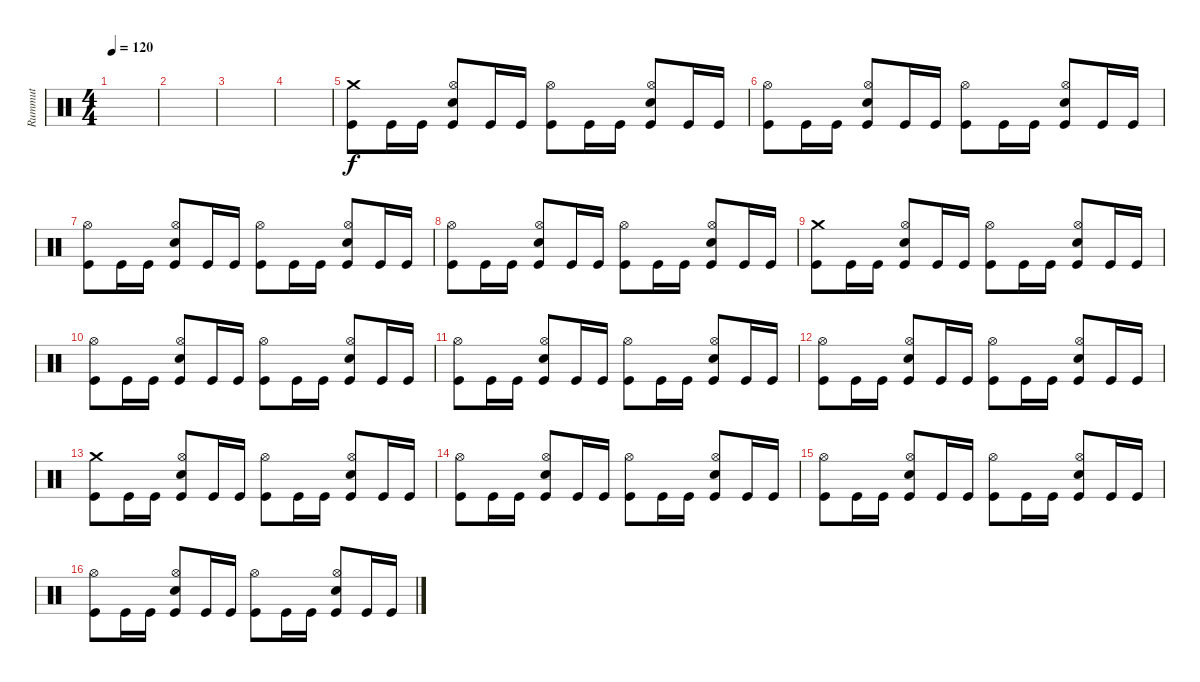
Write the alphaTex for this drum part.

\track ("Rummut" "Rummut") {instrument percussion}
\staff {score}
\articulation defaults
\ts (4 4)
\tempo 120
\clef neutral
\ks c
|
|
|
|
("Crash medium (hit)" "Kick (hit)").8 "Kick (hit)".16 "Kick (hit)".16 ("Hi-Hat (open)" "Snare (hit) 2" "Kick (hit)").8 "Kick (hit)".16 "Kick (hit)".16 ("Hi-Hat (open)" "Kick (hit)").8 "Kick (hit)".16 "Kick (hit)".16 ("Hi-Hat (open)" "Snare (hit) 2" "Kick (hit)").8 "Kick (hit)".16 "Kick (hit)".16 |
("Hi-Hat (open)" "Kick (hit)").8 "Kick (hit)".16 "Kick (hit)".16 ("Hi-Hat (open)" "Snare (hit) 2" "Kick (hit)").8 "Kick (hit)".16 "Kick (hit)".16 ("Hi-Hat (open)" "Kick (hit)").8 "Kick (hit)".16 "Kick (hit)".16 ("Hi-Hat (open)" "Snare (hit) 2" "Kick (hit)").8 "Kick (hit)".16 "Kick (hit)".16 |
("Hi-Hat (open)" "Kick (hit)").8 "Kick (hit)".16 "Kick (hit)".16 ("Hi-Hat (open)" "Snare (hit) 2" "Kick (hit)").8 "Kick (hit)".16 "Kick (hit)".16 ("Hi-Hat (open)" "Kick (hit)").8 "Kick (hit)".16 "Kick (hit)".16 ("Hi-Hat (open)" "Snare (hit) 2" "Kick (hit)").8 "Kick (hit)".16 "Kick (hit)".16 |
("Hi-Hat (open)" "Kick (hit)").8 "Kick (hit)".16 "Kick (hit)".16 ("Hi-Hat (open)" "Snare (hit) 2" "Kick (hit)").8 "Kick (hit)".16 "Kick (hit)".16 ("Hi-Hat (open)" "Kick (hit)").8 "Kick (hit)".16 "Kick (hit)".16 ("Hi-Hat (open)" "Snare (hit) 2" "Kick (hit)").8 "Kick (hit)".16 "Kick (hit)".16 |
("Crash medium (hit)" "Kick (hit)").8 "Kick (hit)".16 "Kick (hit)".16 ("Hi-Hat (open)" "Snare (hit) 2" "Kick (hit)").8 "Kick (hit)".16 "Kick (hit)".16 ("Hi-Hat (open)" "Kick (hit)").8 "Kick (hit)".16 "Kick (hit)".16 ("Hi-Hat (open)" "Snare (hit) 2" "Kick (hit)").8 "Kick (hit)".16 "Kick (hit)".16 |
("Hi-Hat (open)" "Kick (hit)").8 "Kick (hit)".16 "Kick (hit)".16 ("Hi-Hat (open)" "Snare (hit) 2" "Kick (hit)").8 "Kick (hit)".16 "Kick (hit)".16 ("Hi-Hat (open)" "Kick (hit)").8 "Kick (hit)".16 "Kick (hit)".16 ("Hi-Hat (open)" "Snare (hit) 2" "Kick (hit)").8 "Kick (hit)".16 "Kick (hit)".16 |
("Hi-Hat (open)" "Kick (hit)").8 "Kick (hit)".16 "Kick (hit)".16 ("Hi-Hat (open)" "Snare (hit) 2" "Kick (hit)").8 "Kick (hit)".16 "Kick (hit)".16 ("Hi-Hat (open)" "Kick (hit)").8 "Kick (hit)".16 "Kick (hit)".16 ("Hi-Hat (open)" "Snare (hit) 2" "Kick (hit)").8 "Kick (hit)".16 "Kick (hit)".16 |
("Hi-Hat (open)" "Kick (hit)").8 "Kick (hit)".16 "Kick (hit)".16 ("Hi-Hat (open)" "Snare (hit) 2" "Kick (hit)").8 "Kick (hit)".16 "Kick (hit)".16 ("Hi-Hat (open)" "Kick (hit)").8 "Kick (hit)".16 "Kick (hit)".16 ("Hi-Hat (open)" "Snare (hit) 2" "Kick (hit)").8 "Kick (hit)".16 "Kick (hit)".16 |
("Crash medium (hit)" "Kick (hit)").8 "Kick (hit)".16 "Kick (hit)".16 ("Hi-Hat (open)" "Snare (hit) 2" "Kick (hit)").8 "Kick (hit)".16 "Kick (hit)".16 ("Hi-Hat (open)" "Kick (hit)").8 "Kick (hit)".16 "Kick (hit)".16 ("Hi-Hat (open)" "Snare (hit) 2" "Kick (hit)").8 "Kick (hit)".16 "Kick (hit)".16 |
("Hi-Hat (open)" "Kick (hit)").8 "Kick (hit)".16 "Kick (hit)".16 ("Hi-Hat (open)" "Snare (hit) 2" "Kick (hit)").8 "Kick (hit)".16 "Kick (hit)".16 ("Hi-Hat (open)" "Kick (hit)").8 "Kick (hit)".16 "Kick (hit)".16 ("Hi-Hat (open)" "Snare (hit) 2" "Kick (hit)").8 "Kick (hit)".16 "Kick (hit)".16 |
("Hi-Hat (open)" "Kick (hit)").8 "Kick (hit)".16 "Kick (hit)".16 ("Hi-Hat (open)" "Snare (hit) 2" "Kick (hit)").8 "Kick (hit)".16 "Kick (hit)".16 ("Hi-Hat (open)" "Kick (hit)").8 "Kick (hit)".16 "Kick (hit)".16 ("Hi-Hat (open)" "Snare (hit) 2" "Kick (hit)").8 "Kick (hit)".16 "Kick (hit)".16 |
("Hi-Hat (open)" "Kick (hit)").8 "Kick (hit)".16 "Kick (hit)".16 ("Hi-Hat (open)" "Snare (hit) 2" "Kick (hit)").8 "Kick (hit)".16 "Kick (hit)".16 ("Hi-Hat (open)" "Kick (hit)").8 "Kick (hit)".16 "Kick (hit)".16 ("Hi-Hat (open)" "Snare (hit) 2" "Kick (hit)").8 "Kick (hit)".16 "Kick (hit)".16
